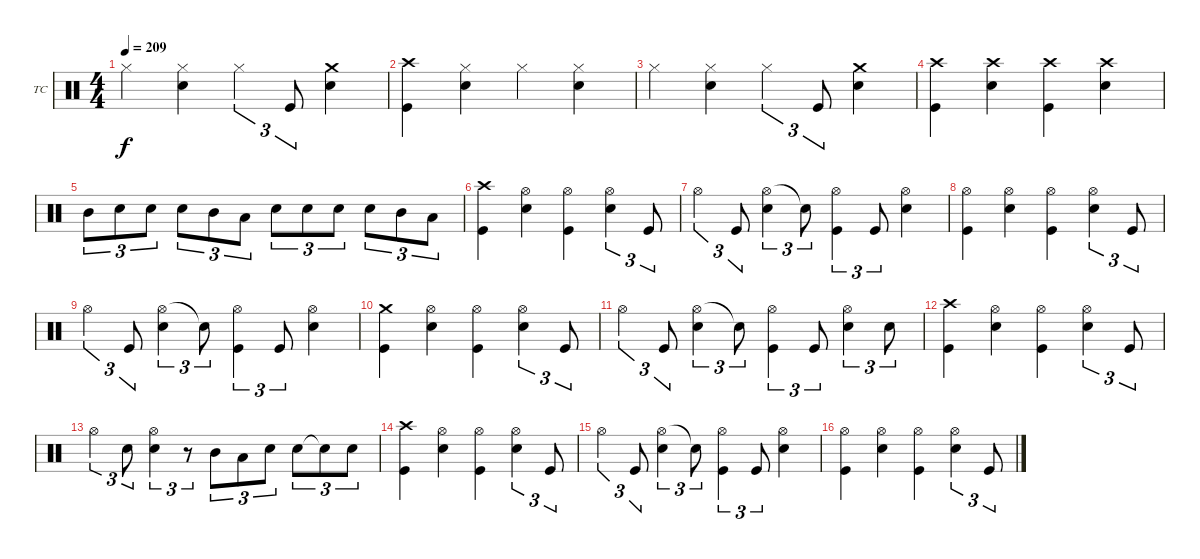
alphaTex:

\defaultSystemsLayout 4
\bracketExtendMode groupsimilarinstruments
\firstSystemTrackNameOrientation horizontal
\otherSystemsTrackNameOrientation horizontal
\track ("Drums - Tre Cool" "TC") {instrument percussion}
\staff {score}
\articulation defaults
\ts (4 4)
\tempo 209
\clef neutral
\ks c "Hi-Hat (closed)".4{dy f}
("Hi-Hat (closed)" "Snare (hit) 2").4 "Hi-Hat (closed)".4{tu (3 2)} "Kick (hit)".8{tu (3 2)} ("Crash medium (hit)" "Snare (hit) 2").4 |
("Crash high (hit)" "Kick (hit)").4 ("Hi-Hat (closed)" "Snare (hit) 2").4 "Hi-Hat (closed)".4 ("Hi-Hat (closed)" "Snare (hit) 2").4 |
"Hi-Hat (closed)".4 ("Hi-Hat (closed)" "Snare (hit) 2").4 "Hi-Hat (closed)".4{tu (3 2)} "Kick (hit)".8{tu (3 2)} ("Crash medium (hit)" "Snare (hit) 2").4 |
("Crash high (hit)" "Kick (hit)").4 ("Crash high (hit)" "Snare (hit) 2").4 ("Crash high (hit)" "Kick (hit)").4 ("Crash high (hit)" "Snare (hit) 2").4 |
"Mid Tom (hit)".8{tu (3 2)} "Snare (hit) 2".8{tu (3 2)} "Snare (hit) 2".8{tu (3 2)} "Snare (hit) 2".8{tu (3 2)} "Mid Tom (hit)".8{tu (3 2)} "Low Tom (hit)".8{tu (3 2)} "Snare (hit) 2".8{tu (3 2)} "Snare (hit) 2".8{tu (3 2)} "Snare (hit) 2".8{tu (3 2)} "Snare (hit) 2".8{tu (3 2)} "Mid Tom (hit)".8{tu (3 2)} "Low Tom (hit)".8{tu (3 2)} |
("Crash high (hit)" "Kick (hit)").4 ("Hi-Hat (open)" "Snare (hit) 2").4 ("Hi-Hat (open)" "Kick (hit)").4 ("Hi-Hat (open)" "Snare (hit) 2").4{tu (3 2)} "Kick (hit)".8{tu (3 2)} |
"Hi-Hat (open)".4{tu (3 2)} "Kick (hit)".8{tu (3 2)} ("Hi-Hat (open)" "Snare (hit) 2").4{tu (3 2)} "Snare (hit) 2"{t}.8{tu (3 2)} ("Hi-Hat (open)" "Kick (hit)").4{tu (3 2)} "Kick (hit)".8{tu (3 2)} ("Hi-Hat (open)" "Snare (hit) 2").4 |
("Hi-Hat (open)" "Kick (hit)").4 ("Hi-Hat (open)" "Snare (hit) 2").4 ("Hi-Hat (open)" "Kick (hit)").4 ("Hi-Hat (open)" "Snare (hit) 2").4{tu (3 2)} "Kick (hit)".8{tu (3 2)} |
"Hi-Hat (open)".4{tu (3 2)} "Kick (hit)".8{tu (3 2)} ("Hi-Hat (open)" "Snare (hit) 2").4{tu (3 2)} "Snare (hit) 2"{t}.8{tu (3 2)} ("Hi-Hat (open)" "Kick (hit)").4{tu (3 2)} "Kick (hit)".8{tu (3 2)} ("Hi-Hat (open)" "Snare (hit) 2").4 |
("Crash medium (hit)" "Kick (hit)").4 ("Hi-Hat (open)" "Snare (hit) 2").4 ("Hi-Hat (open)" "Kick (hit)").4 ("Hi-Hat (open)" "Snare (hit) 2").4{tu (3 2)} "Kick (hit)".8{tu (3 2)} |
"Hi-Hat (open)".4{tu (3 2)} "Kick (hit)".8{tu (3 2)} ("Hi-Hat (open)" "Snare (hit) 2").4{tu (3 2)} "Snare (hit) 2"{t}.8{tu (3 2)} ("Hi-Hat (open)" "Kick (hit)").4{tu (3 2)} "Kick (hit)".8{tu (3 2)} ("Hi-Hat (open)" "Snare (hit) 2").4{tu (3 2)} "Snare (hit) 2".8{tu (3 2)} |
("Crash high (hit)" "Kick (hit)").4 ("Hi-Hat (open)" "Snare (hit) 2").4 ("Hi-Hat (open)" "Kick (hit)").4 ("Hi-Hat (open)" "Snare (hit) 2").4{tu (3 2)} "Kick (hit)".8{tu (3 2)} |
"Hi-Hat (open)".4{tu (3 2)} "Snare (hit) 2".8{tu (3 2)} ("Hi-Hat (open)" "Snare (hit) 2").4{tu (3 2)} r.8{tu (3 2)} "Mid Tom (hit)".8{tu (3 2)} "Low Tom (hit)".8{tu (3 2)} "Snare (hit) 2".8{tu (3 2)} "Snare (hit) 2".8{tu (3 2)} "Snare (hit) 2"{t}.8{tu (3 2)} "Snare (hit) 2".8{tu (3 2)} |
("Crash high (hit)" "Kick (hit)").4 ("Hi-Hat (open)" "Snare (hit) 2").4 ("Hi-Hat (open)" "Kick (hit)").4 ("Hi-Hat (open)" "Snare (hit) 2").4{tu (3 2)} "Kick (hit)".8{tu (3 2)} |
"Hi-Hat (open)".4{tu (3 2)} "Kick (hit)".8{tu (3 2)} ("Hi-Hat (open)" "Snare (hit) 2").4{tu (3 2)} "Snare (hit) 2"{t}.8{tu (3 2)} ("Hi-Hat (open)" "Kick (hit)").4{tu (3 2)} "Kick (hit)".8{tu (3 2)} ("Hi-Hat (open)" "Snare (hit) 2").4 |
("Hi-Hat (open)" "Kick (hit)").4 ("Hi-Hat (open)" "Snare (hit) 2").4 ("Hi-Hat (open)" "Kick (hit)").4 ("Hi-Hat (open)" "Snare (hit) 2").4{tu (3 2)} "Kick (hit)".8{tu (3 2)}
